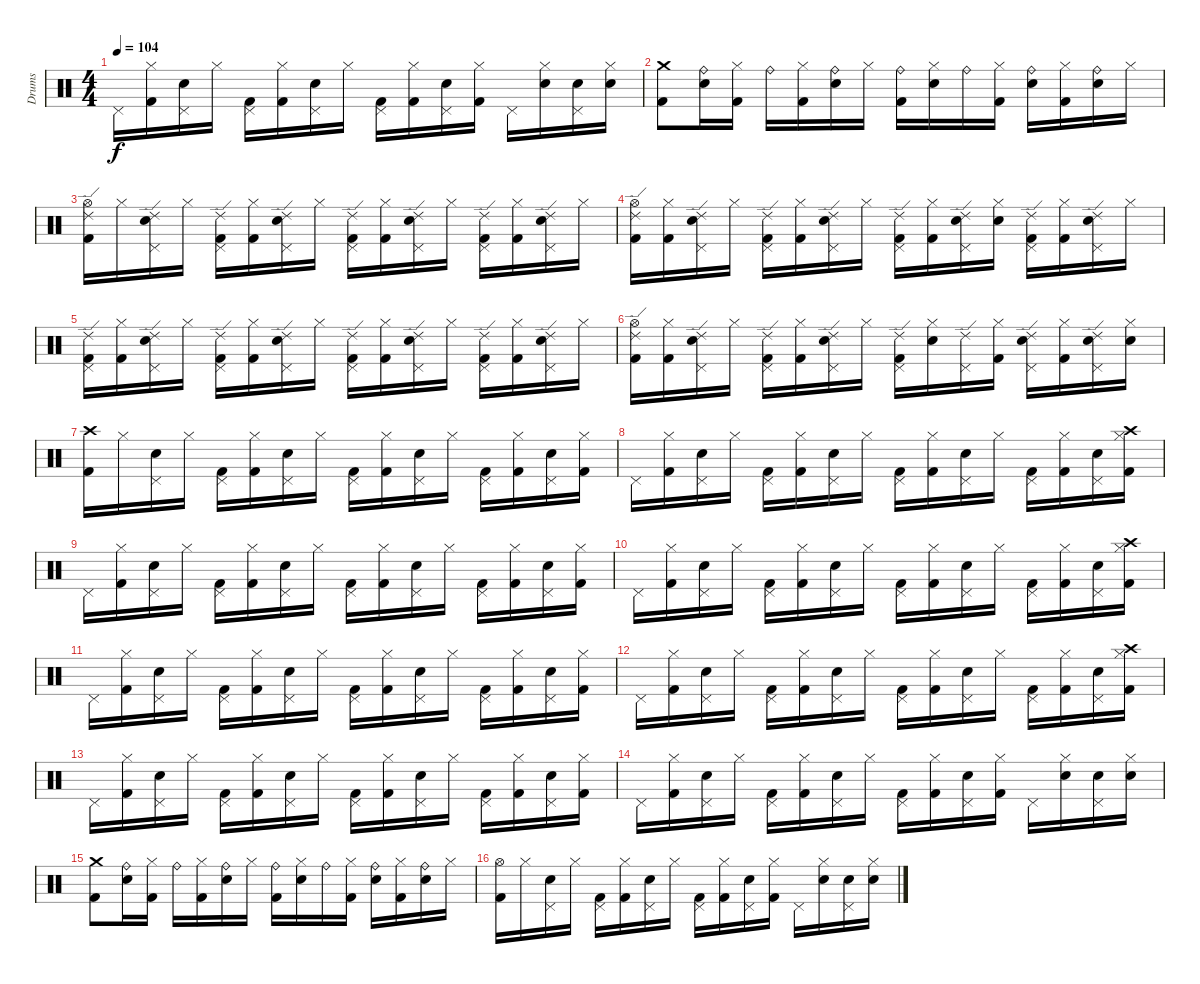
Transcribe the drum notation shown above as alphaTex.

\track ("Drums" "Drums") {instrument percussion}
\staff {score}
\articulation defaults
\ts (4 4)
\tempo 104
\clef neutral
\ks c "Pedal Hi-Hat (hit)".16{dy f}
("Kick (hit) 2" "Hi-Hat (closed)").16 ("Snare (hit) 2" "Pedal Hi-Hat (hit)").16 "Hi-Hat (closed)".16 ("Kick (hit) 2" "Pedal Hi-Hat (hit)").16 ("Kick (hit) 2" "Hi-Hat (closed)").16 ("Snare (hit) 2" "Pedal Hi-Hat (hit)").16 "Hi-Hat (closed)".16 ("Kick (hit) 2" "Pedal Hi-Hat (hit)").16 ("Kick (hit) 2" "Hi-Hat (closed)").16 ("Snare (hit) 2" "Pedal Hi-Hat (hit)").16 ("Kick (hit) 2" "Hi-Hat (closed)").16 "Pedal Hi-Hat (hit)".16 ("Snare (hit) 2" "Hi-Hat (closed)").16 ("Snare (hit) 2" "Pedal Hi-Hat (hit)").16 ("Snare (hit) 2" "Hi-Hat (closed)").16 |
("Kick (hit) 2" "Crash medium (hit)").8 ("Snare (hit) 2" "Ride (bell)").16 ("Kick (hit) 2" "Hi-Hat (closed)").16 "Ride (bell)".16 ("Kick (hit) 2" "Hi-Hat (closed)").16 ("Snare (hit) 2" "Ride (bell)").16 "Hi-Hat (closed)".16 ("Kick (hit) 2" "Ride (bell)").16 ("Snare (hit) 2" "Hi-Hat (closed)").16 "Ride (bell)".16 ("Kick (hit) 2" "Hi-Hat (closed)").16 ("Snare (hit) 2" "Ride (bell)").16 ("Kick (hit) 2" "Hi-Hat (closed)").16 ("Snare (hit) 2" "Ride (bell)").16 "Hi-Hat (closed)".16 |
("Kick (hit) 2" "Hi-Hat (open)" "Ride (edge) 2").16 "Hi-Hat (closed)".16 ("Snare (hit) 2" "Pedal Hi-Hat (hit)" "Ride (edge) 2").16 "Hi-Hat (closed)".16 ("Kick (hit) 2" "Pedal Hi-Hat (hit)" "Ride (edge) 2").16 ("Kick (hit) 2" "Hi-Hat (closed)").16 ("Snare (hit) 2" "Pedal Hi-Hat (hit)" "Ride (edge) 2").16 "Hi-Hat (closed)".16 ("Kick (hit) 2" "Pedal Hi-Hat (hit)" "Ride (edge) 2").16 ("Kick (hit) 2" "Hi-Hat (closed)").16 ("Snare (hit) 2" "Pedal Hi-Hat (hit)" "Ride (edge) 2").16 "Hi-Hat (closed)".16 ("Kick (hit) 2" "Pedal Hi-Hat (hit)" "Ride (edge) 2").16 ("Kick (hit) 2" "Hi-Hat (closed)").16 ("Snare (hit) 2" "Pedal Hi-Hat (hit)" "Ride (edge) 2").16 "Hi-Hat (closed)".16 |
("Kick (hit) 2" "Hi-Hat (open)" "Ride (edge) 2").16 ("Kick (hit) 2" "Hi-Hat (closed)").16 ("Snare (hit) 2" "Pedal Hi-Hat (hit)" "Ride (edge) 2").16 "Hi-Hat (closed)".16 ("Kick (hit) 2" "Pedal Hi-Hat (hit)" "Ride (edge) 2").16 ("Kick (hit) 2" "Hi-Hat (closed)").16 ("Snare (hit) 2" "Pedal Hi-Hat (hit)" "Ride (edge) 2").16 "Hi-Hat (closed)".16 ("Kick (hit) 2" "Pedal Hi-Hat (hit)" "Ride (edge) 2").16 ("Kick (hit) 2" "Hi-Hat (closed)").16 ("Snare (hit) 2" "Pedal Hi-Hat (hit)" "Ride (edge) 2").16 ("Snare (hit) 2" "Hi-Hat (closed)").16 ("Kick (hit) 2" "Pedal Hi-Hat (hit)" "Ride (edge) 2").16 ("Kick (hit) 2" "Hi-Hat (closed)").16 ("Snare (hit) 2" "Pedal Hi-Hat (hit)" "Ride (edge) 2").16 "Hi-Hat (closed)".16 |
("Kick (hit) 2" "Pedal Hi-Hat (hit)" "Ride (edge) 2").16 ("Kick (hit) 2" "Hi-Hat (closed)").16 ("Snare (hit) 2" "Pedal Hi-Hat (hit)" "Ride (edge) 2").16 "Hi-Hat (closed)".16 ("Kick (hit) 2" "Pedal Hi-Hat (hit)" "Ride (edge) 2").16 ("Kick (hit) 2" "Hi-Hat (closed)").16 ("Snare (hit) 2" "Pedal Hi-Hat (hit)" "Ride (edge) 2").16 "Hi-Hat (closed)".16 ("Kick (hit) 2" "Pedal Hi-Hat (hit)" "Ride (edge) 2").16 ("Kick (hit) 2" "Hi-Hat (closed)").16 ("Snare (hit) 2" "Pedal Hi-Hat (hit)" "Ride (edge) 2").16 "Hi-Hat (closed)".16 ("Kick (hit) 2" "Pedal Hi-Hat (hit)" "Ride (edge) 2").16 ("Kick (hit) 2" "Hi-Hat (closed)").16 ("Snare (hit) 2" "Pedal Hi-Hat (hit)" "Ride (edge) 2").16 "Hi-Hat (closed)".16 |
("Kick (hit) 2" "Hi-Hat (open)" "Ride (edge) 2").16 ("Kick (hit) 2" "Hi-Hat (closed)").16 ("Snare (hit) 2" "Pedal Hi-Hat (hit)" "Ride (edge) 2").16 "Hi-Hat (closed)".16 ("Kick (hit) 2" "Pedal Hi-Hat (hit)" "Ride (edge) 2").16 ("Kick (hit) 2" "Hi-Hat (closed)").16 ("Snare (hit) 2" "Pedal Hi-Hat (hit)" "Ride (edge) 2").16 "Hi-Hat (closed)".16 ("Kick (hit) 2" "Pedal Hi-Hat (hit)" "Ride (edge) 2").16 ("Snare (hit) 2" "Hi-Hat (closed)").16 ("Pedal Hi-Hat (hit)" "Ride (edge) 2").16 ("Kick (hit) 2" "Hi-Hat (closed)").16 ("Snare (hit) 2" "Pedal Hi-Hat (hit)" "Ride (edge) 2").16 ("Kick (hit) 2" "Hi-Hat (closed)").16 ("Snare (hit) 2" "Pedal Hi-Hat (hit)" "Ride (edge) 2").16 ("Snare (hit) 2" "Hi-Hat (closed)").16 |
("Kick (hit) 2" "Crash high (hit)").16 "Hi-Hat (closed)".16 ("Snare (hit) 2" "Pedal Hi-Hat (hit)").16 "Hi-Hat (closed)".16 ("Kick (hit) 2" "Pedal Hi-Hat (hit)").16 ("Kick (hit) 2" "Hi-Hat (closed)").16 ("Snare (hit) 2" "Pedal Hi-Hat (hit)").16 "Hi-Hat (closed)".16 ("Kick (hit) 2" "Pedal Hi-Hat (hit)").16 ("Kick (hit) 2" "Hi-Hat (closed)").16 ("Snare (hit) 2" "Pedal Hi-Hat (hit)").16 "Hi-Hat (closed)".16 ("Kick (hit) 2" "Pedal Hi-Hat (hit)").16 ("Kick (hit) 2" "Hi-Hat (closed)").16 ("Snare (hit) 2" "Pedal Hi-Hat (hit)").16 ("Kick (hit) 2" "Hi-Hat (closed)").16 |
"Pedal Hi-Hat (hit)".16 ("Kick (hit) 2" "Hi-Hat (closed)").16 ("Snare (hit) 2" "Pedal Hi-Hat (hit)").16 "Hi-Hat (closed)".16 ("Kick (hit) 2" "Pedal Hi-Hat (hit)").16 ("Kick (hit) 2" "Hi-Hat (closed)").16 ("Snare (hit) 2" "Pedal Hi-Hat (hit)").16 "Hi-Hat (closed)".16 ("Kick (hit) 2" "Pedal Hi-Hat (hit)").16 ("Kick (hit) 2" "Hi-Hat (closed)").16 ("Snare (hit) 2" "Pedal Hi-Hat (hit)").16 "Hi-Hat (closed)".16 ("Kick (hit) 2" "Pedal Hi-Hat (hit)").16 ("Kick (hit) 2" "Hi-Hat (closed)").16 ("Snare (hit) 2" "Pedal Hi-Hat (hit)").16 ("Kick (hit) 2" "Hi-Hat (closed)" "Crash high (hit)").16 |
"Pedal Hi-Hat (hit)".16 ("Kick (hit) 2" "Hi-Hat (closed)").16 ("Snare (hit) 2" "Pedal Hi-Hat (hit)").16 "Hi-Hat (closed)".16 ("Kick (hit) 2" "Pedal Hi-Hat (hit)").16 ("Kick (hit) 2" "Hi-Hat (closed)").16 ("Snare (hit) 2" "Pedal Hi-Hat (hit)").16 "Hi-Hat (closed)".16 ("Kick (hit) 2" "Pedal Hi-Hat (hit)").16 ("Kick (hit) 2" "Hi-Hat (closed)").16 ("Snare (hit) 2" "Pedal Hi-Hat (hit)").16 "Hi-Hat (closed)".16 ("Kick (hit) 2" "Pedal Hi-Hat (hit)").16 ("Kick (hit) 2" "Hi-Hat (closed)").16 ("Snare (hit) 2" "Pedal Hi-Hat (hit)").16 ("Kick (hit) 2" "Hi-Hat (closed)").16 |
"Pedal Hi-Hat (hit)".16 ("Kick (hit) 2" "Hi-Hat (closed)").16 ("Snare (hit) 2" "Pedal Hi-Hat (hit)").16 "Hi-Hat (closed)".16 ("Kick (hit) 2" "Pedal Hi-Hat (hit)").16 ("Kick (hit) 2" "Hi-Hat (closed)").16 ("Snare (hit) 2" "Pedal Hi-Hat (hit)").16 "Hi-Hat (closed)".16 ("Kick (hit) 2" "Pedal Hi-Hat (hit)").16 ("Kick (hit) 2" "Hi-Hat (closed)").16 ("Snare (hit) 2" "Pedal Hi-Hat (hit)").16 "Hi-Hat (closed)".16 ("Kick (hit) 2" "Pedal Hi-Hat (hit)").16 ("Kick (hit) 2" "Hi-Hat (closed)").16 ("Snare (hit) 2" "Pedal Hi-Hat (hit)").16 ("Kick (hit) 2" "Hi-Hat (closed)" "Crash high (hit)").16 |
"Pedal Hi-Hat (hit)".16 ("Kick (hit) 2" "Hi-Hat (closed)").16 ("Snare (hit) 2" "Pedal Hi-Hat (hit)").16 "Hi-Hat (closed)".16 ("Kick (hit) 2" "Pedal Hi-Hat (hit)").16 ("Kick (hit) 2" "Hi-Hat (closed)").16 ("Snare (hit) 2" "Pedal Hi-Hat (hit)").16 "Hi-Hat (closed)".16 ("Kick (hit) 2" "Pedal Hi-Hat (hit)").16 ("Kick (hit) 2" "Hi-Hat (closed)").16 ("Snare (hit) 2" "Pedal Hi-Hat (hit)").16 "Hi-Hat (closed)".16 ("Kick (hit) 2" "Pedal Hi-Hat (hit)").16 ("Kick (hit) 2" "Hi-Hat (closed)").16 ("Snare (hit) 2" "Pedal Hi-Hat (hit)").16 ("Kick (hit) 2" "Hi-Hat (closed)").16 |
"Pedal Hi-Hat (hit)".16 ("Kick (hit) 2" "Hi-Hat (closed)").16 ("Snare (hit) 2" "Pedal Hi-Hat (hit)").16 "Hi-Hat (closed)".16 ("Kick (hit) 2" "Pedal Hi-Hat (hit)").16 ("Kick (hit) 2" "Hi-Hat (closed)").16 ("Snare (hit) 2" "Pedal Hi-Hat (hit)").16 "Hi-Hat (closed)".16 ("Kick (hit) 2" "Pedal Hi-Hat (hit)").16 ("Kick (hit) 2" "Hi-Hat (closed)").16 ("Snare (hit) 2" "Pedal Hi-Hat (hit)").16 "Hi-Hat (closed)".16 ("Kick (hit) 2" "Pedal Hi-Hat (hit)").16 ("Kick (hit) 2" "Hi-Hat (closed)").16 ("Snare (hit) 2" "Pedal Hi-Hat (hit)").16 ("Kick (hit) 2" "Hi-Hat (closed)" "Crash high (hit)").16 |
"Pedal Hi-Hat (hit)".16 ("Kick (hit) 2" "Hi-Hat (closed)").16 ("Snare (hit) 2" "Pedal Hi-Hat (hit)").16 "Hi-Hat (closed)".16 ("Kick (hit) 2" "Pedal Hi-Hat (hit)").16 ("Kick (hit) 2" "Hi-Hat (closed)").16 ("Snare (hit) 2" "Pedal Hi-Hat (hit)").16 "Hi-Hat (closed)".16 ("Kick (hit) 2" "Pedal Hi-Hat (hit)").16 ("Kick (hit) 2" "Hi-Hat (closed)").16 ("Snare (hit) 2" "Pedal Hi-Hat (hit)").16 "Hi-Hat (closed)".16 ("Kick (hit) 2" "Pedal Hi-Hat (hit)").16 ("Kick (hit) 2" "Hi-Hat (closed)").16 ("Snare (hit) 2" "Pedal Hi-Hat (hit)").16 ("Kick (hit) 2" "Hi-Hat (closed)").16 |
"Pedal Hi-Hat (hit)".16 ("Kick (hit) 2" "Hi-Hat (closed)").16 ("Snare (hit) 2" "Pedal Hi-Hat (hit)").16 "Hi-Hat (closed)".16 ("Kick (hit) 2" "Pedal Hi-Hat (hit)").16 ("Kick (hit) 2" "Hi-Hat (closed)").16 ("Snare (hit) 2" "Pedal Hi-Hat (hit)").16 "Hi-Hat (closed)".16 ("Kick (hit) 2" "Pedal Hi-Hat (hit)").16 ("Kick (hit) 2" "Hi-Hat (closed)").16 ("Snare (hit) 2" "Pedal Hi-Hat (hit)").16 ("Kick (hit) 2" "Hi-Hat (closed)").16 "Pedal Hi-Hat (hit)".16 ("Snare (hit) 2" "Hi-Hat (closed)").16 ("Snare (hit) 2" "Pedal Hi-Hat (hit)").16 ("Snare (hit) 2" "Hi-Hat (closed)").16 |
("Kick (hit) 2" "Crash medium (hit)").8 ("Snare (hit) 2" "Ride (bell)").16 ("Kick (hit) 2" "Hi-Hat (closed)").16 "Ride (bell)".16 ("Kick (hit) 2" "Hi-Hat (closed)").16 ("Snare (hit) 2" "Ride (bell)").16 "Hi-Hat (closed)".16 ("Kick (hit) 2" "Ride (bell)").16 ("Snare (hit) 2" "Hi-Hat (closed)").16 "Ride (bell)".16 ("Kick (hit) 2" "Hi-Hat (closed)").16 ("Snare (hit) 2" "Ride (bell)").16 ("Kick (hit) 2" "Hi-Hat (closed)").16 ("Snare (hit) 2" "Ride (bell)").16 "Hi-Hat (closed)".16 |
("Kick (hit) 2" "Hi-Hat (open)").16 "Hi-Hat (closed)".16 ("Snare (hit) 2" "Pedal Hi-Hat (hit)").16 "Hi-Hat (closed)".16 ("Kick (hit) 2" "Pedal Hi-Hat (hit)").16 ("Kick (hit) 2" "Hi-Hat (closed)").16 ("Snare (hit) 2" "Pedal Hi-Hat (hit)").16 "Hi-Hat (closed)".16 ("Kick (hit) 2" "Pedal Hi-Hat (hit)").16 ("Kick (hit) 2" "Hi-Hat (closed)").16 ("Snare (hit) 2" "Pedal Hi-Hat (hit)").16 ("Kick (hit) 2" "Hi-Hat (closed)").16 "Pedal Hi-Hat (hit)".16 ("Snare (hit) 2" "Hi-Hat (closed)").16 ("Snare (hit) 2" "Pedal Hi-Hat (hit)").16 ("Snare (hit) 2" "Hi-Hat (closed)").16
